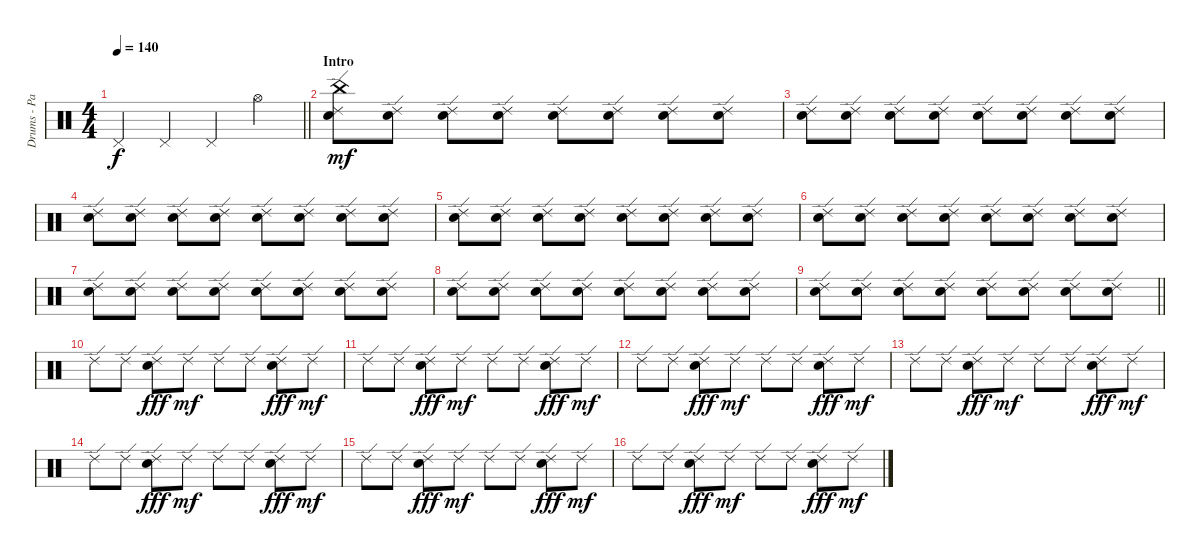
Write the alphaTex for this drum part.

\track ("Drums - Paice" "Drums - Pa") {instrument percussion}
\staff {score}
\articulation defaults
\ts (4 4)
\tempo 140
\clef neutral
\barLineRight lightlight
\ks c "Pedal Hi-Hat (hit)".4{dy f} "Pedal Hi-Hat (hit)".4 "Pedal Hi-Hat (hit)".4 "Hi-Hat (open)".4
|
\section ("" "Intro")
("Ride (edge) 2" "Electric Snare (hit)" "China (hit)").8{dy mf} ("Ride (edge) 2" "Electric Snare (hit)").8 ("Ride (edge) 2" "Electric Snare (hit)").8 ("Ride (edge) 2" "Electric Snare (hit)").8 ("Ride (edge) 2" "Electric Snare (hit)").8 ("Ride (edge) 2" "Electric Snare (hit)").8 ("Ride (edge) 2" "Electric Snare (hit)").8 ("Ride (edge) 2" "Electric Snare (hit)").8 |
("Ride (edge) 2" "Electric Snare (hit)").8 ("Ride (edge) 2" "Electric Snare (hit)").8 ("Ride (edge) 2" "Electric Snare (hit)").8 ("Ride (edge) 2" "Electric Snare (hit)").8 ("Ride (edge) 2" "Electric Snare (hit)").8 ("Ride (edge) 2" "Electric Snare (hit)").8 ("Ride (edge) 2" "Electric Snare (hit)").8 ("Ride (edge) 2" "Electric Snare (hit)").8 |
("Ride (edge) 2" "Electric Snare (hit)").8 ("Ride (edge) 2" "Electric Snare (hit)").8 ("Ride (edge) 2" "Electric Snare (hit)").8 ("Ride (edge) 2" "Electric Snare (hit)").8 ("Ride (edge) 2" "Electric Snare (hit)").8 ("Ride (edge) 2" "Electric Snare (hit)").8 ("Ride (edge) 2" "Electric Snare (hit)").8 ("Ride (edge) 2" "Electric Snare (hit)").8 |
("Ride (edge) 2" "Electric Snare (hit)").8 ("Ride (edge) 2" "Electric Snare (hit)").8 ("Ride (edge) 2" "Electric Snare (hit)").8 ("Ride (edge) 2" "Electric Snare (hit)").8 ("Ride (edge) 2" "Electric Snare (hit)").8 ("Ride (edge) 2" "Electric Snare (hit)").8 ("Ride (edge) 2" "Electric Snare (hit)").8 ("Ride (edge) 2" "Electric Snare (hit)").8 |
("Ride (edge) 2" "Electric Snare (hit)").8 ("Ride (edge) 2" "Electric Snare (hit)").8 ("Ride (edge) 2" "Electric Snare (hit)").8 ("Ride (edge) 2" "Electric Snare (hit)").8 ("Ride (edge) 2" "Electric Snare (hit)").8 ("Ride (edge) 2" "Electric Snare (hit)").8 ("Ride (edge) 2" "Electric Snare (hit)").8 ("Ride (edge) 2" "Electric Snare (hit)").8 |
("Ride (edge) 2" "Electric Snare (hit)").8 ("Ride (edge) 2" "Electric Snare (hit)").8 ("Ride (edge) 2" "Electric Snare (hit)").8 ("Ride (edge) 2" "Electric Snare (hit)").8 ("Ride (edge) 2" "Electric Snare (hit)").8 ("Ride (edge) 2" "Electric Snare (hit)").8 ("Ride (edge) 2" "Electric Snare (hit)").8 ("Ride (edge) 2" "Electric Snare (hit)").8 |
("Ride (edge) 2" "Electric Snare (hit)").8 ("Ride (edge) 2" "Electric Snare (hit)").8 ("Ride (edge) 2" "Electric Snare (hit)").8 ("Ride (edge) 2" "Electric Snare (hit)").8 ("Ride (edge) 2" "Electric Snare (hit)").8 ("Ride (edge) 2" "Electric Snare (hit)").8 ("Ride (edge) 2" "Electric Snare (hit)").8 ("Ride (edge) 2" "Electric Snare (hit)").8 |
\barLineRight lightlight
("Ride (edge) 2" "Electric Snare (hit)").8 ("Ride (edge) 2" "Electric Snare (hit)").8 ("Ride (edge) 2" "Electric Snare (hit)").8 ("Ride (edge) 2" "Electric Snare (hit)").8 ("Ride (edge) 2" "Electric Snare (hit)").8 ("Ride (edge) 2" "Electric Snare (hit)").8 ("Ride (edge) 2" "Electric Snare (hit)").8 ("Ride (edge) 2" "Electric Snare (hit)").8 |
"Ride (edge) 2".8 "Ride (edge) 2".8 ("Ride (edge) 2" "Electric Snare (hit)").8{dy fff} "Ride (edge) 2".8{dy mf} "Ride (edge) 2".8 "Ride (edge) 2".8 ("Ride (edge) 2" "Electric Snare (hit)").8{dy fff} "Ride (edge) 2".8{dy mf} |
"Ride (edge) 2".8 "Ride (edge) 2".8 ("Ride (edge) 2" "Electric Snare (hit)").8{dy fff} "Ride (edge) 2".8{dy mf} "Ride (edge) 2".8 "Ride (edge) 2".8 ("Ride (edge) 2" "Electric Snare (hit)").8{dy fff} "Ride (edge) 2".8{dy mf} |
"Ride (edge) 2".8 "Ride (edge) 2".8 ("Ride (edge) 2" "Electric Snare (hit)").8{dy fff} "Ride (edge) 2".8{dy mf} "Ride (edge) 2".8 "Ride (edge) 2".8 ("Ride (edge) 2" "Electric Snare (hit)").8{dy fff} "Ride (edge) 2".8{dy mf} |
"Ride (edge) 2".8 "Ride (edge) 2".8 ("Ride (edge) 2" "Electric Snare (hit)").8{dy fff} "Ride (edge) 2".8{dy mf} "Ride (edge) 2".8 "Ride (edge) 2".8 ("Ride (edge) 2" "Electric Snare (hit)").8{dy fff} "Ride (edge) 2".8{dy mf} |
"Ride (edge) 2".8 "Ride (edge) 2".8 ("Ride (edge) 2" "Electric Snare (hit)").8{dy fff} "Ride (edge) 2".8{dy mf} "Ride (edge) 2".8 "Ride (edge) 2".8 ("Ride (edge) 2" "Electric Snare (hit)").8{dy fff} "Ride (edge) 2".8{dy mf} |
"Ride (edge) 2".8 "Ride (edge) 2".8 ("Ride (edge) 2" "Electric Snare (hit)").8{dy fff} "Ride (edge) 2".8{dy mf} "Ride (edge) 2".8 "Ride (edge) 2".8 ("Ride (edge) 2" "Electric Snare (hit)").8{dy fff} "Ride (edge) 2".8{dy mf} |
"Ride (edge) 2".8 "Ride (edge) 2".8 ("Ride (edge) 2" "Electric Snare (hit)").8{dy fff} "Ride (edge) 2".8{dy mf} "Ride (edge) 2".8 "Ride (edge) 2".8 ("Ride (edge) 2" "Electric Snare (hit)").8{dy fff} "Ride (edge) 2".8{dy mf}
